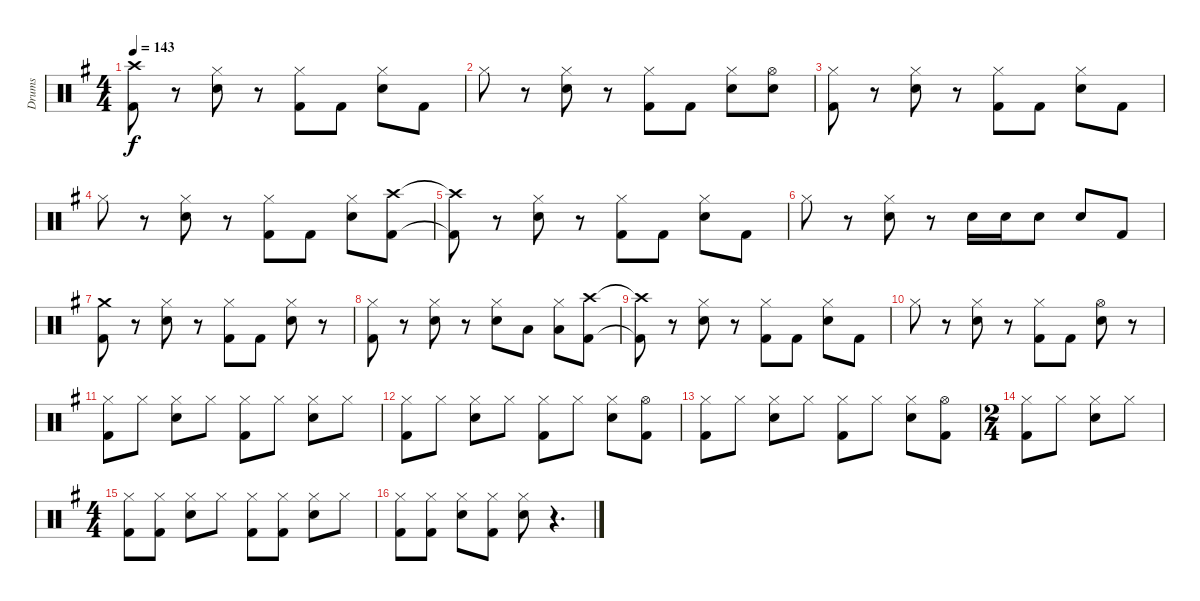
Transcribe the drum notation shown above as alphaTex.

\track ("Drums" "Drums") {instrument percussion}
\staff {score}
\articulation defaults
\ts (4 4)
\tempo 143
\clef neutral
\ks g
("Crash high (hit)"{t} "Kick (hit) 2"{t}).8{dy f} r.8 ("Hi-Hat (closed)" "Electric Snare (hit)").8 r.8 ("Hi-Hat (closed)" "Kick (hit) 2").8 "Kick (hit) 2".8 ("Hi-Hat (closed)" "Electric Snare (hit)").8 "Kick (hit) 2".8 |
"Hi-Hat (closed)".8 r.8 ("Hi-Hat (closed)" "Electric Snare (hit)").8 r.8 ("Hi-Hat (closed)" "Kick (hit) 2").8 "Kick (hit) 2".8 ("Hi-Hat (closed)" "Electric Snare (hit)").8 ("Hi-Hat (open)" "Electric Snare (hit)").8 |
("Hi-Hat (closed)" "Kick (hit) 2").8 r.8 ("Hi-Hat (closed)" "Electric Snare (hit)").8 r.8 ("Hi-Hat (closed)" "Kick (hit) 2").8 "Kick (hit) 2".8 ("Hi-Hat (closed)" "Electric Snare (hit)").8 "Kick (hit) 2".8 |
"Hi-Hat (closed)".8 r.8 ("Hi-Hat (closed)" "Electric Snare (hit)").8 r.8 ("Hi-Hat (closed)" "Kick (hit) 2").8 "Kick (hit) 2".8 ("Hi-Hat (closed)" "Electric Snare (hit)").8 ("Crash high (hit)" "Kick (hit) 2").8 |
("Crash high (hit)"{t} "Kick (hit) 2"{t}).8 r.8 ("Hi-Hat (closed)" "Electric Snare (hit)").8 r.8 ("Hi-Hat (closed)" "Kick (hit) 2").8 "Kick (hit) 2".8 ("Hi-Hat (closed)" "Electric Snare (hit)").8 "Kick (hit) 2".8 |
"Hi-Hat (closed)".8 r.8 ("Hi-Hat (closed)" "Electric Snare (hit)").8 r.8 "Electric Snare (hit)".16 "Electric Snare (hit)".16 "Electric Snare (hit)".8 "Electric Snare (hit)".8 "Kick (hit) 2".8 |
("Crash medium (hit)" "Kick (hit) 2").8 r.8 ("Hi-Hat (closed)" "Electric Snare (hit)").8 r.8 ("Hi-Hat (closed)" "Kick (hit) 2").8 "Kick (hit) 2".8 ("Hi-Hat (closed)" "Electric Snare (hit)").8 r.8 |
("Hi-Hat (closed)" "Kick (hit) 2").8 r.8 ("Hi-Hat (closed)" "Electric Snare (hit)").8 r.8 ("Hi-Hat (closed)" "Electric Snare (hit)").8 "Low Tom (hit)".8 ("Hi-Hat (closed)" "Low Tom (hit)").8 ("Crash high (hit)" "Kick (hit) 2").8 |
("Crash high (hit)"{t} "Kick (hit) 2"{t}).8 r.8 ("Hi-Hat (closed)" "Electric Snare (hit)").8 r.8 ("Hi-Hat (closed)" "Kick (hit) 2").8 "Kick (hit) 2".8 ("Hi-Hat (closed)" "Electric Snare (hit)").8 "Kick (hit) 2".8 |
"Hi-Hat (closed)".8 r.8 ("Hi-Hat (closed)" "Electric Snare (hit)").8 r.8 ("Hi-Hat (closed)" "Kick (hit) 2").8 "Kick (hit) 2".8 ("Hi-Hat (open)" "Electric Snare (hit)").8 r.8 |
("Hi-Hat (closed)" "Kick (hit) 2").8 "Hi-Hat (closed)".8 ("Hi-Hat (closed)" "Electric Snare (hit)").8 "Hi-Hat (closed)".8 ("Hi-Hat (closed)" "Kick (hit) 2").8 "Hi-Hat (closed)".8 ("Hi-Hat (closed)" "Electric Snare (hit)").8 "Hi-Hat (closed)".8 |
("Hi-Hat (closed)" "Kick (hit) 2").8 "Hi-Hat (closed)".8 ("Hi-Hat (closed)" "Electric Snare (hit)").8 "Hi-Hat (closed)".8 ("Hi-Hat (closed)" "Kick (hit) 2").8 "Hi-Hat (closed)".8 ("Hi-Hat (closed)" "Electric Snare (hit)").8 ("Hi-Hat (open)" "Kick (hit) 2").8 |
("Hi-Hat (closed)" "Kick (hit) 2").8 "Hi-Hat (closed)".8 ("Hi-Hat (closed)" "Electric Snare (hit)").8 "Hi-Hat (closed)".8 ("Hi-Hat (closed)" "Kick (hit) 2").8 "Hi-Hat (closed)".8 ("Hi-Hat (closed)" "Electric Snare (hit)").8 ("Hi-Hat (open)" "Kick (hit) 2").8 |
\ts (2 4)
("Hi-Hat (closed)" "Kick (hit) 2").8 "Hi-Hat (closed)".8 ("Hi-Hat (closed)" "Electric Snare (hit)").8 "Hi-Hat (closed)".8 |
\ts (4 4)
("Hi-Hat (closed)" "Kick (hit) 2").8 ("Hi-Hat (closed)" "Kick (hit) 2").8 ("Hi-Hat (closed)" "Electric Snare (hit)").8 "Hi-Hat (closed)".8 ("Hi-Hat (closed)" "Kick (hit) 2").8 ("Hi-Hat (closed)" "Kick (hit) 2").8 ("Hi-Hat (closed)" "Electric Snare (hit)").8 "Hi-Hat (closed)".8 |
("Hi-Hat (closed)" "Kick (hit) 2").8 ("Hi-Hat (closed)" "Kick (hit) 2").8 ("Hi-Hat (closed)" "Electric Snare (hit)").8 ("Hi-Hat (closed)" "Kick (hit) 2").8 ("Hi-Hat (closed)" "Electric Snare (hit)").8 r.4{d}
